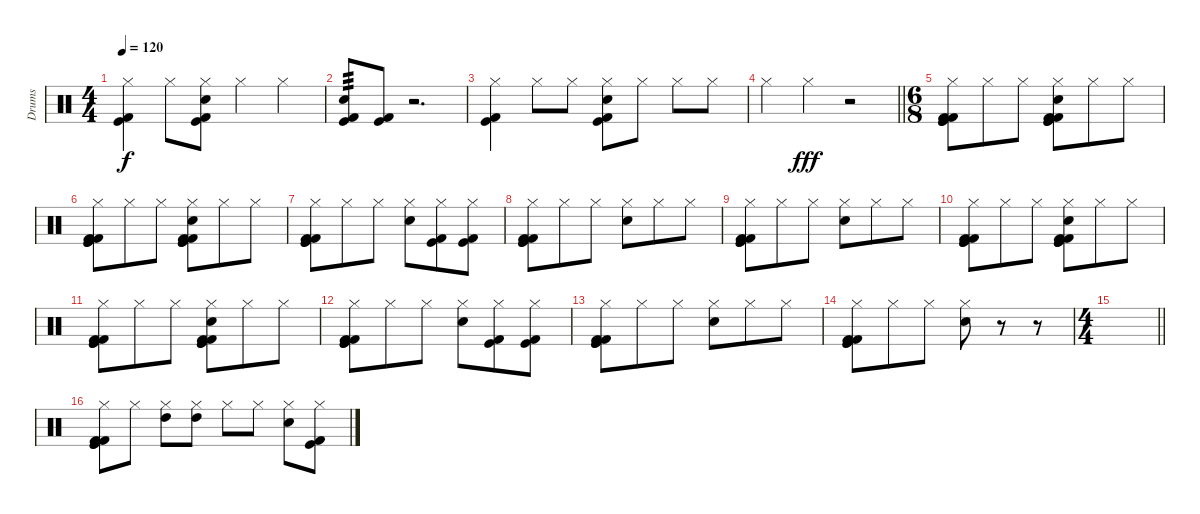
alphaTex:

\track ("Drums" "Drums") {instrument percussion}
\staff {score}
\articulation defaults
\ts (4 4)
\tempo 120
\clef neutral
\ks c
("Hi-Hat (closed)" "Kick (hit) 2" "Kick (hit)").4{dy f} "Hi-Hat (closed)".8 ("Hi-Hat (closed)" "Snare (hit) 2" "Kick (hit) 2" "Kick (hit)").8 "Hi-Hat (closed)".4 "Hi-Hat (closed)".4 |
("Snare (hit) 2" "Kick (hit) 2" "Kick (hit)").8{tp 3} ("Kick (hit) 2" "Kick (hit)").8 r.2{d} |
("Hi-Hat (closed)" "Kick (hit) 2" "Kick (hit)").4 "Hi-Hat (closed)".8 "Hi-Hat (closed)".8 ("Hi-Hat (closed)" "Snare (hit) 2" "Kick (hit) 2" "Kick (hit)").8 "Hi-Hat (closed)".8 "Hi-Hat (closed)".8 "Hi-Hat (closed)".8 |
\barLineRight lightlight "Hi-Hat (closed)".4 "Hi-Hat (closed)".4{dy fff}
r.2 |
\ts (6 8)
("Hi-Hat (closed)" "Kick (hit)" "Kick (hit) 2" "Kick (hit) 2" "Kick (hit)").8 "Hi-Hat (closed)".8 "Hi-Hat (closed)".8 ("Hi-Hat (closed)" "Snare (hit) 2" "Kick (hit) 2" "Kick (hit) 2" "Kick (hit)" "Kick (hit)").8 "Hi-Hat (closed)".8 "Hi-Hat (closed)".8 |
("Hi-Hat (closed)" "Kick (hit)" "Kick (hit) 2" "Kick (hit) 2" "Kick (hit)").8 "Hi-Hat (closed)".8 "Hi-Hat (closed)".8 ("Hi-Hat (closed)" "Snare (hit) 2" "Kick (hit) 2" "Kick (hit) 2" "Kick (hit)" "Kick (hit)").8 "Hi-Hat (closed)".8 "Hi-Hat (closed)".8 |
("Hi-Hat (closed)" "Kick (hit)" "Kick (hit) 2" "Kick (hit) 2" "Kick (hit)").8 "Hi-Hat (closed)".8 "Hi-Hat (closed)".8 ("Hi-Hat (closed)" "Snare (hit) 2").8 ("Hi-Hat (closed)" "Kick (hit) 2" "Kick (hit)").8 ("Hi-Hat (closed)" "Kick (hit) 2" "Kick (hit)").8 |
("Hi-Hat (closed)" "Kick (hit)" "Kick (hit) 2" "Kick (hit) 2" "Kick (hit)").8 "Hi-Hat (closed)".8 "Hi-Hat (closed)".8 ("Hi-Hat (closed)" "Snare (hit) 2").8 "Hi-Hat (closed)".8 "Hi-Hat (closed)".8 |
("Hi-Hat (closed)" "Kick (hit)" "Kick (hit) 2" "Kick (hit) 2" "Kick (hit)").8 "Hi-Hat (closed)".8 "Hi-Hat (closed)".8 ("Hi-Hat (closed)" "Snare (hit) 2").8 "Hi-Hat (closed)".8 "Hi-Hat (closed)".8 |
("Hi-Hat (closed)" "Kick (hit)" "Kick (hit) 2" "Kick (hit) 2" "Kick (hit)").8 "Hi-Hat (closed)".8 "Hi-Hat (closed)".8 ("Hi-Hat (closed)" "Snare (hit) 2" "Kick (hit) 2" "Kick (hit) 2" "Kick (hit)" "Kick (hit)").8 "Hi-Hat (closed)".8 "Hi-Hat (closed)".8 |
("Hi-Hat (closed)" "Kick (hit)" "Kick (hit) 2" "Kick (hit) 2" "Kick (hit)").8 "Hi-Hat (closed)".8 "Hi-Hat (closed)".8 ("Hi-Hat (closed)" "Snare (hit) 2" "Kick (hit) 2" "Kick (hit) 2" "Kick (hit)" "Kick (hit)").8 "Hi-Hat (closed)".8 "Hi-Hat (closed)".8 |
("Hi-Hat (closed)" "Kick (hit)" "Kick (hit) 2" "Kick (hit) 2" "Kick (hit)").8 "Hi-Hat (closed)".8 "Hi-Hat (closed)".8 ("Hi-Hat (closed)" "Snare (hit) 2").8 ("Hi-Hat (closed)" "Kick (hit) 2" "Kick (hit)").8 ("Hi-Hat (closed)" "Kick (hit) 2" "Kick (hit)").8 |
("Hi-Hat (closed)" "Kick (hit)" "Kick (hit) 2" "Kick (hit) 2" "Kick (hit)").8 "Hi-Hat (closed)".8 "Hi-Hat (closed)".8 ("Hi-Hat (closed)" "Snare (hit) 2").8 "Hi-Hat (closed)".8 "Hi-Hat (closed)".8 |
("Hi-Hat (closed)" "Kick (hit)" "Kick (hit) 2" "Kick (hit) 2" "Kick (hit)").8 "Hi-Hat (closed)".8 "Hi-Hat (closed)".8 ("Hi-Hat (closed)" "Snare (hit) 2").8 r.8 r.8 |
\ts (4 4)
\barLineRight lightlight
|
("Hi-Hat (closed)" "Kick (hit) 2" "Kick (hit) 2" "Kick (hit)" "Kick (hit)").8 "Hi-Hat (closed)".8 ("Hi-Hat (closed)" "High Tom (hit)").8 ("Hi-Hat (closed)" "High Tom (hit)").8 "Hi-Hat (closed)".8 "Hi-Hat (closed)".8 ("Hi-Hat (closed)" "Snare (hit) 2").8 ("Hi-Hat (closed)" "Kick (hit) 2" "Kick (hit)").8
